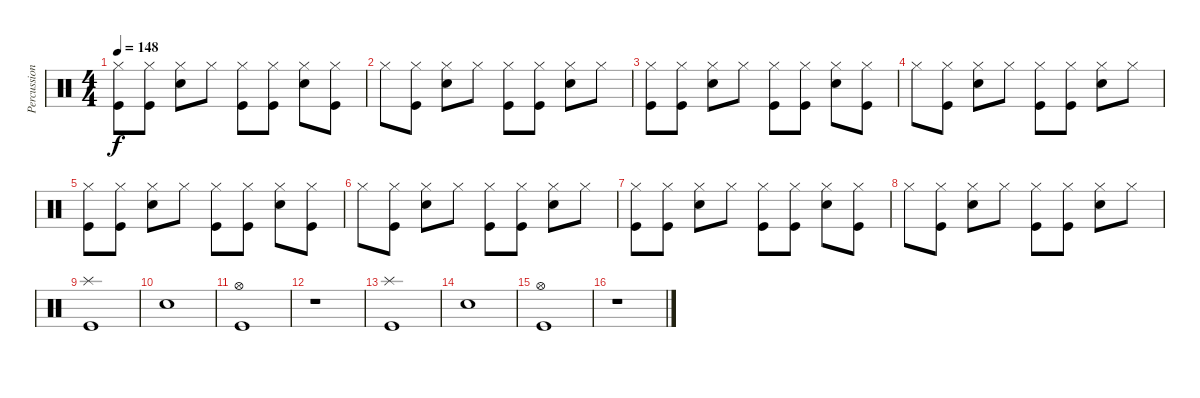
\track ("Percussion" "Percussion") {instrument percussion}
\staff {score}
\articulation defaults
\ts (4 4)
\tempo 148
\clef neutral
\ks c
("Hi-Hat (closed)" "Kick (hit)").8{dy f} ("Hi-Hat (closed)" "Kick (hit)").8 ("Hi-Hat (closed)" "Snare (hit) 2").8 "Hi-Hat (closed)".8 ("Hi-Hat (closed)" "Kick (hit)").8 ("Hi-Hat (closed)" "Kick (hit)").8 ("Hi-Hat (closed)" "Snare (hit) 2").8 ("Hi-Hat (closed)" "Kick (hit)").8 |
"Hi-Hat (closed)".8 ("Hi-Hat (closed)" "Kick (hit)").8 ("Hi-Hat (closed)" "Snare (hit) 2").8 "Hi-Hat (closed)".8 ("Hi-Hat (closed)" "Kick (hit)").8 ("Hi-Hat (closed)" "Kick (hit)").8 ("Hi-Hat (closed)" "Snare (hit) 2").8 "Hi-Hat (closed)".8 |
("Hi-Hat (closed)" "Kick (hit)").8 ("Hi-Hat (closed)" "Kick (hit)").8 ("Hi-Hat (closed)" "Snare (hit) 2").8 "Hi-Hat (closed)".8 ("Hi-Hat (closed)" "Kick (hit)").8 ("Hi-Hat (closed)" "Kick (hit)").8 ("Hi-Hat (closed)" "Snare (hit) 2").8 ("Hi-Hat (closed)" "Kick (hit)").8 |
"Hi-Hat (closed)".8 ("Hi-Hat (closed)" "Kick (hit)").8 ("Hi-Hat (closed)" "Snare (hit) 2").8 "Hi-Hat (closed)".8 ("Hi-Hat (closed)" "Kick (hit)").8 ("Hi-Hat (closed)" "Kick (hit)").8 ("Hi-Hat (closed)" "Snare (hit) 2").8 "Hi-Hat (closed)".8 |
("Hi-Hat (closed)" "Kick (hit)").8 ("Hi-Hat (closed)" "Kick (hit)").8 ("Hi-Hat (closed)" "Snare (hit) 2").8 "Hi-Hat (closed)".8 ("Hi-Hat (closed)" "Kick (hit)").8 ("Hi-Hat (closed)" "Kick (hit)").8 ("Hi-Hat (closed)" "Snare (hit) 2").8 ("Hi-Hat (closed)" "Kick (hit)").8 |
"Hi-Hat (closed)".8 ("Hi-Hat (closed)" "Kick (hit)").8 ("Hi-Hat (closed)" "Snare (hit) 2").8 "Hi-Hat (closed)".8 ("Hi-Hat (closed)" "Kick (hit)").8 ("Hi-Hat (closed)" "Kick (hit)").8 ("Hi-Hat (closed)" "Snare (hit) 2").8 "Hi-Hat (closed)".8 |
("Hi-Hat (closed)" "Kick (hit)").8 ("Hi-Hat (closed)" "Kick (hit)").8 ("Hi-Hat (closed)" "Snare (hit) 2").8 "Hi-Hat (closed)".8 ("Hi-Hat (closed)" "Kick (hit)").8 ("Hi-Hat (closed)" "Kick (hit)").8 ("Hi-Hat (closed)" "Snare (hit) 2").8 ("Hi-Hat (closed)" "Kick (hit)").8 |
"Hi-Hat (closed)".8 ("Hi-Hat (closed)" "Kick (hit)").8 ("Hi-Hat (closed)" "Snare (hit) 2").8 "Hi-Hat (closed)".8 ("Hi-Hat (closed)" "Kick (hit)").8 ("Hi-Hat (closed)" "Kick (hit)").8 ("Hi-Hat (closed)" "Snare (hit) 2").8 "Hi-Hat (closed)".8 |
("Splash (hit)" "Kick (hit)").1 |
"Snare (hit) 2".1 |
("Hi-Hat (open)" "Kick (hit)").1 |
r.1 |
("Splash (hit)" "Kick (hit)").1 |
"Snare (hit) 2".1 |
("Hi-Hat (open)" "Kick (hit)").1 |
r.1
